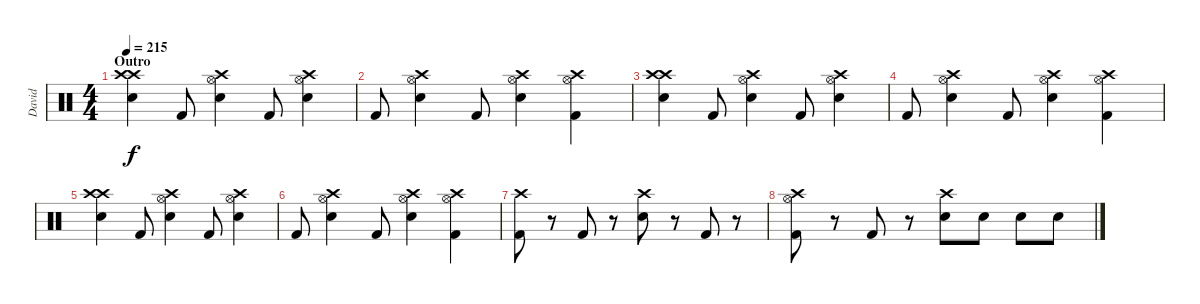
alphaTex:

\track ("David" "David") {instrument percussion}
\staff {score}
\articulation defaults
\ts (4 4)
\section ("" "Outro")
\tempo 215
\clef neutral
\ks c
("Crash high (hit)" "Crash high (hit)" "Electric Snare (hit)").4{dy f} "Kick (hit) 2".8 ("Crash high (hit)" "Hi-Hat (open)" "Electric Snare (hit)").4 "Kick (hit) 2".8 ("Crash high (hit)" "Hi-Hat (open)" "Electric Snare (hit)").4 |
"Kick (hit) 2".8 ("Crash high (hit)" "Hi-Hat (open)" "Electric Snare (hit)").4 "Kick (hit) 2".8 ("Crash high (hit)" "Hi-Hat (open)" "Electric Snare (hit)").4 ("Crash high (hit)" "Hi-Hat (open)" "Kick (hit) 2").4 |
("Crash high (hit)" "Crash high (hit)" "Electric Snare (hit)").4 "Kick (hit) 2".8 ("Crash high (hit)" "Hi-Hat (open)" "Electric Snare (hit)").4 "Kick (hit) 2".8 ("Crash high (hit)" "Hi-Hat (open)" "Electric Snare (hit)").4 |
"Kick (hit) 2".8 ("Crash high (hit)" "Hi-Hat (open)" "Electric Snare (hit)").4 "Kick (hit) 2".8 ("Crash high (hit)" "Hi-Hat (open)" "Electric Snare (hit)").4 ("Crash high (hit)" "Hi-Hat (open)" "Kick (hit) 2").4 |
("Crash high (hit)" "Crash high (hit)" "Electric Snare (hit)").4 "Kick (hit) 2".8 ("Crash high (hit)" "Hi-Hat (open)" "Electric Snare (hit)").4 "Kick (hit) 2".8 ("Crash high (hit)" "Hi-Hat (open)" "Electric Snare (hit)").4 |
"Kick (hit) 2".8 ("Crash high (hit)" "Hi-Hat (open)" "Electric Snare (hit)").4 "Kick (hit) 2".8 ("Crash high (hit)" "Hi-Hat (open)" "Electric Snare (hit)").4 ("Crash high (hit)" "Hi-Hat (open)" "Kick (hit) 2").4 |
("Crash high (hit)" "Kick (hit) 2").8 r.8 "Kick (hit) 2".8 r.8 ("Crash high (hit)" "Electric Snare (hit)").8 r.8 "Kick (hit) 2".8 r.8 |
("Crash high (hit)" "Hi-Hat (open)" "Kick (hit) 2").8 r.8 "Kick (hit) 2".8 r.8 ("Crash high (hit)" "Electric Snare (hit)").8 "Electric Snare (hit)".8 "Electric Snare (hit)".8 "Electric Snare (hit)".8
